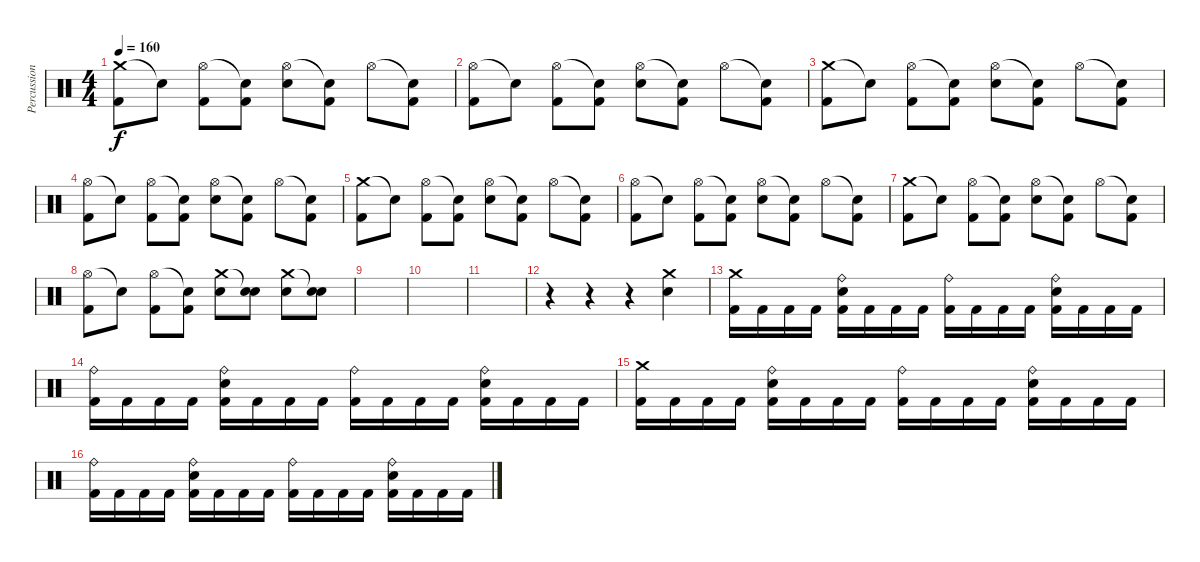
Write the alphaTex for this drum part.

\track ("Percussion" "Percussion") {instrument percussion}
\staff {score}
\articulation defaults
\ts (4 4)
\tempo 160
\clef neutral
\ks c
("Crash medium (hit)" "Kick (hit) 2").8{dy f} "Snare (hit)"{t}.8 ("Hi-Hat (open)" "Kick (hit) 2").8 ("Snare (hit)"{t} "Kick (hit) 2").8 ("Hi-Hat (open)" "Electric Snare (hit)").8 ("Snare (hit)"{t} "Kick (hit) 2").8 "Hi-Hat (open)".8 ("Snare (hit)"{t} "Kick (hit) 2").8 |
("Hi-Hat (open)" "Kick (hit) 2").8 "Snare (hit)"{t}.8 ("Hi-Hat (open)" "Kick (hit) 2").8 ("Snare (hit)"{t} "Kick (hit) 2").8 ("Hi-Hat (open)" "Electric Snare (hit)").8 ("Snare (hit)"{t} "Kick (hit) 2").8 "Hi-Hat (open)".8 ("Snare (hit)"{t} "Kick (hit) 2").8 |
("Crash medium (hit)" "Kick (hit) 2").8 "Snare (hit)"{t}.8 ("Hi-Hat (open)" "Kick (hit) 2").8 ("Snare (hit)"{t} "Kick (hit) 2").8 ("Hi-Hat (open)" "Electric Snare (hit)").8 ("Snare (hit)"{t} "Kick (hit) 2").8 "Hi-Hat (open)".8 ("Snare (hit)"{t} "Kick (hit) 2").8 |
("Hi-Hat (open)" "Kick (hit) 2").8 "Snare (hit)"{t}.8 ("Hi-Hat (open)" "Kick (hit) 2").8 ("Snare (hit)"{t} "Kick (hit) 2").8 ("Hi-Hat (open)" "Electric Snare (hit)").8 ("Snare (hit)"{t} "Kick (hit) 2").8 "Hi-Hat (open)".8 ("Snare (hit)"{t} "Kick (hit) 2").8 |
("Crash medium (hit)" "Kick (hit) 2").8 "Snare (hit)"{t}.8 ("Hi-Hat (open)" "Kick (hit) 2").8 ("Snare (hit)"{t} "Kick (hit) 2").8 ("Hi-Hat (open)" "Electric Snare (hit)").8 ("Snare (hit)"{t} "Kick (hit) 2").8 "Hi-Hat (open)".8 ("Snare (hit)"{t} "Kick (hit) 2").8 |
("Hi-Hat (open)" "Kick (hit) 2").8 "Snare (hit)"{t}.8 ("Hi-Hat (open)" "Kick (hit) 2").8 ("Snare (hit)"{t} "Kick (hit) 2").8 ("Hi-Hat (open)" "Electric Snare (hit)").8 ("Snare (hit)"{t} "Kick (hit) 2").8 "Hi-Hat (open)".8 ("Snare (hit)"{t} "Kick (hit) 2").8 |
("Crash medium (hit)" "Kick (hit) 2").8 "Snare (hit)"{t}.8 ("Hi-Hat (open)" "Kick (hit) 2").8 ("Snare (hit)"{t} "Kick (hit) 2").8 ("Hi-Hat (open)" "Electric Snare (hit)").8 ("Snare (hit)"{t} "Kick (hit) 2").8 "Hi-Hat (open)".8 ("Snare (hit)"{t} "Kick (hit) 2").8 |
("Hi-Hat (open)" "Kick (hit) 2").8 "Snare (hit)"{t}.8 ("Hi-Hat (open)" "Kick (hit) 2").8 ("Snare (hit)"{t} "Kick (hit) 2").8 ("Crash medium (hit)" "Electric Snare (hit)").8 ("Snare (hit)"{t} "Electric Snare (hit)").8 ("Crash medium (hit)" "Electric Snare (hit)").8 ("Snare (hit)"{t} "Electric Snare (hit)").8 |
|
|
|
r.4 r.4 r.4 ("Crash medium (hit)" "Electric Snare (hit)").4 |
("Crash medium (hit)" "Kick (hit) 2").16 "Kick (hit) 2".16 "Kick (hit) 2".16 "Kick (hit) 2".16 ("Ride (bell)" "Electric Snare (hit)" "Kick (hit) 2").16 "Kick (hit) 2".16 "Kick (hit) 2".16 "Kick (hit) 2".16 ("Ride (bell)" "Kick (hit) 2").16 "Kick (hit) 2".16 "Kick (hit) 2".16 "Kick (hit) 2".16 ("Ride (bell)" "Electric Snare (hit)" "Kick (hit) 2").16 "Kick (hit) 2".16 "Kick (hit) 2".16 "Kick (hit) 2".16 |
("Ride (bell)" "Kick (hit) 2").16 "Kick (hit) 2".16 "Kick (hit) 2".16 "Kick (hit) 2".16 ("Ride (bell)" "Electric Snare (hit)" "Kick (hit) 2").16 "Kick (hit) 2".16 "Kick (hit) 2".16 "Kick (hit) 2".16 ("Ride (bell)" "Kick (hit) 2").16 "Kick (hit) 2".16 "Kick (hit) 2".16 "Kick (hit) 2".16 ("Ride (bell)" "Electric Snare (hit)" "Kick (hit) 2").16 "Kick (hit) 2".16 "Kick (hit) 2".16 "Kick (hit) 2".16 |
("Crash medium (hit)" "Kick (hit) 2").16 "Kick (hit) 2".16 "Kick (hit) 2".16 "Kick (hit) 2".16 ("Ride (bell)" "Electric Snare (hit)" "Kick (hit) 2").16 "Kick (hit) 2".16 "Kick (hit) 2".16 "Kick (hit) 2".16 ("Ride (bell)" "Kick (hit) 2").16 "Kick (hit) 2".16 "Kick (hit) 2".16 "Kick (hit) 2".16 ("Ride (bell)" "Electric Snare (hit)" "Kick (hit) 2").16 "Kick (hit) 2".16 "Kick (hit) 2".16 "Kick (hit) 2".16 |
("Ride (bell)" "Kick (hit) 2").16 "Kick (hit) 2".16 "Kick (hit) 2".16 "Kick (hit) 2".16 ("Ride (bell)" "Electric Snare (hit)" "Kick (hit) 2").16 "Kick (hit) 2".16 "Kick (hit) 2".16 "Kick (hit) 2".16 ("Ride (bell)" "Kick (hit) 2").16 "Kick (hit) 2".16 "Kick (hit) 2".16 "Kick (hit) 2".16 ("Ride (bell)" "Electric Snare (hit)" "Kick (hit) 2").16 "Kick (hit) 2".16 "Kick (hit) 2".16 "Kick (hit) 2".16
